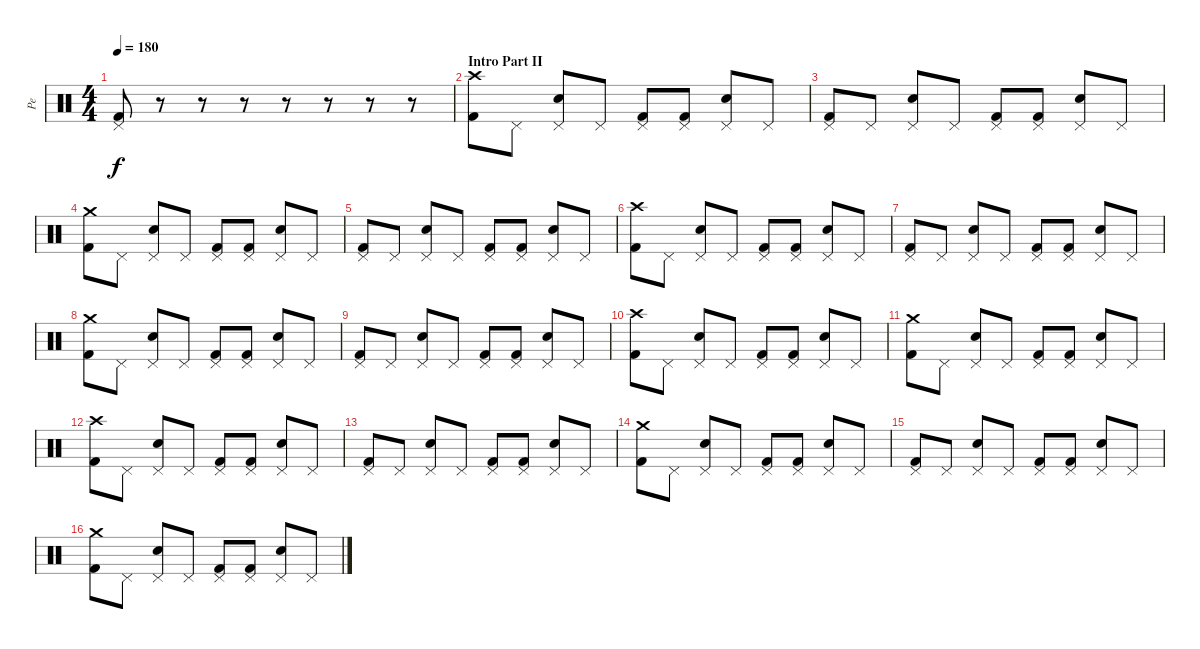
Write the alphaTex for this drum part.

\track ("Pe" "Pe") {instrument percussion}
\staff {score}
\articulation defaults
\ts (4 4)
\tempo 180
\clef neutral
\ks c
("Pedal Hi-Hat (hit)" "Kick (hit) 2").8{dy f} r.8 r.8 r.8 r.8 r.8 r.8 r.8 |
\section ("" "Intro Part II")
("Crash high (hit)" "Kick (hit) 2").8 "Pedal Hi-Hat (hit)".8 ("Pedal Hi-Hat (hit)" "Electric Snare (hit)").8 "Pedal Hi-Hat (hit)".8 ("Pedal Hi-Hat (hit)" "Kick (hit) 2").8 ("Pedal Hi-Hat (hit)" "Kick (hit) 2").8 ("Pedal Hi-Hat (hit)" "Electric Snare (hit)").8 "Pedal Hi-Hat (hit)".8 |
("Pedal Hi-Hat (hit)" "Kick (hit) 2").8 "Pedal Hi-Hat (hit)".8 ("Pedal Hi-Hat (hit)" "Electric Snare (hit)").8 "Pedal Hi-Hat (hit)".8 ("Pedal Hi-Hat (hit)" "Kick (hit) 2").8 ("Pedal Hi-Hat (hit)" "Kick (hit) 2").8 ("Pedal Hi-Hat (hit)" "Electric Snare (hit)").8 "Pedal Hi-Hat (hit)".8 |
("Crash medium (hit)" "Kick (hit) 2").8 "Pedal Hi-Hat (hit)".8 ("Pedal Hi-Hat (hit)" "Electric Snare (hit)").8 "Pedal Hi-Hat (hit)".8 ("Pedal Hi-Hat (hit)" "Kick (hit) 2").8 ("Pedal Hi-Hat (hit)" "Kick (hit) 2").8 ("Pedal Hi-Hat (hit)" "Electric Snare (hit)").8 "Pedal Hi-Hat (hit)".8 |
("Pedal Hi-Hat (hit)" "Kick (hit) 2").8 "Pedal Hi-Hat (hit)".8 ("Pedal Hi-Hat (hit)" "Electric Snare (hit)").8 "Pedal Hi-Hat (hit)".8 ("Pedal Hi-Hat (hit)" "Kick (hit) 2").8 ("Pedal Hi-Hat (hit)" "Kick (hit) 2").8 ("Pedal Hi-Hat (hit)" "Electric Snare (hit)").8 "Pedal Hi-Hat (hit)".8 |
("Crash high (hit)" "Kick (hit) 2").8 "Pedal Hi-Hat (hit)".8 ("Pedal Hi-Hat (hit)" "Electric Snare (hit)").8 "Pedal Hi-Hat (hit)".8 ("Pedal Hi-Hat (hit)" "Kick (hit) 2").8 ("Pedal Hi-Hat (hit)" "Kick (hit) 2").8 ("Pedal Hi-Hat (hit)" "Electric Snare (hit)").8 "Pedal Hi-Hat (hit)".8 |
("Pedal Hi-Hat (hit)" "Kick (hit) 2").8 "Pedal Hi-Hat (hit)".8 ("Pedal Hi-Hat (hit)" "Electric Snare (hit)").8 "Pedal Hi-Hat (hit)".8 ("Pedal Hi-Hat (hit)" "Kick (hit) 2").8 ("Pedal Hi-Hat (hit)" "Kick (hit) 2").8 ("Pedal Hi-Hat (hit)" "Electric Snare (hit)").8 "Pedal Hi-Hat (hit)".8 |
("Crash medium (hit)" "Kick (hit) 2").8 "Pedal Hi-Hat (hit)".8 ("Pedal Hi-Hat (hit)" "Electric Snare (hit)").8 "Pedal Hi-Hat (hit)".8 ("Pedal Hi-Hat (hit)" "Kick (hit) 2").8 ("Pedal Hi-Hat (hit)" "Kick (hit) 2").8 ("Pedal Hi-Hat (hit)" "Electric Snare (hit)").8 "Pedal Hi-Hat (hit)".8 |
("Pedal Hi-Hat (hit)" "Kick (hit) 2").8 "Pedal Hi-Hat (hit)".8 ("Pedal Hi-Hat (hit)" "Electric Snare (hit)").8 "Pedal Hi-Hat (hit)".8 ("Pedal Hi-Hat (hit)" "Kick (hit) 2").8 ("Pedal Hi-Hat (hit)" "Kick (hit) 2").8 ("Pedal Hi-Hat (hit)" "Electric Snare (hit)").8 "Pedal Hi-Hat (hit)".8 |
("Crash high (hit)" "Kick (hit) 2").8 "Pedal Hi-Hat (hit)".8 ("Pedal Hi-Hat (hit)" "Electric Snare (hit)").8 "Pedal Hi-Hat (hit)".8 ("Pedal Hi-Hat (hit)" "Kick (hit) 2").8 ("Pedal Hi-Hat (hit)" "Kick (hit) 2").8 ("Pedal Hi-Hat (hit)" "Electric Snare (hit)").8 "Pedal Hi-Hat (hit)".8 |
("Crash medium (hit)" "Kick (hit) 2").8 "Pedal Hi-Hat (hit)".8 ("Pedal Hi-Hat (hit)" "Electric Snare (hit)").8 "Pedal Hi-Hat (hit)".8 ("Pedal Hi-Hat (hit)" "Kick (hit) 2").8 ("Pedal Hi-Hat (hit)" "Kick (hit) 2").8 ("Pedal Hi-Hat (hit)" "Electric Snare (hit)").8 "Pedal Hi-Hat (hit)".8 |
("Crash high (hit)" "Kick (hit) 2").8 "Pedal Hi-Hat (hit)".8 ("Pedal Hi-Hat (hit)" "Electric Snare (hit)").8 "Pedal Hi-Hat (hit)".8 ("Pedal Hi-Hat (hit)" "Kick (hit) 2").8 ("Pedal Hi-Hat (hit)" "Kick (hit) 2").8 ("Pedal Hi-Hat (hit)" "Electric Snare (hit)").8 "Pedal Hi-Hat (hit)".8 |
("Pedal Hi-Hat (hit)" "Kick (hit) 2").8 "Pedal Hi-Hat (hit)".8 ("Pedal Hi-Hat (hit)" "Electric Snare (hit)").8 "Pedal Hi-Hat (hit)".8 ("Pedal Hi-Hat (hit)" "Kick (hit) 2").8 ("Pedal Hi-Hat (hit)" "Kick (hit) 2").8 ("Pedal Hi-Hat (hit)" "Electric Snare (hit)").8 "Pedal Hi-Hat (hit)".8 |
("Crash medium (hit)" "Kick (hit) 2").8 "Pedal Hi-Hat (hit)".8 ("Pedal Hi-Hat (hit)" "Electric Snare (hit)").8 "Pedal Hi-Hat (hit)".8 ("Pedal Hi-Hat (hit)" "Kick (hit) 2").8 ("Pedal Hi-Hat (hit)" "Kick (hit) 2").8 ("Pedal Hi-Hat (hit)" "Electric Snare (hit)").8 "Pedal Hi-Hat (hit)".8 |
("Pedal Hi-Hat (hit)" "Kick (hit) 2").8 "Pedal Hi-Hat (hit)".8 ("Pedal Hi-Hat (hit)" "Electric Snare (hit)").8 "Pedal Hi-Hat (hit)".8 ("Pedal Hi-Hat (hit)" "Kick (hit) 2").8 ("Pedal Hi-Hat (hit)" "Kick (hit) 2").8 ("Pedal Hi-Hat (hit)" "Electric Snare (hit)").8 "Pedal Hi-Hat (hit)".8 |
("Crash medium (hit)" "Kick (hit) 2").8 "Pedal Hi-Hat (hit)".8 ("Pedal Hi-Hat (hit)" "Electric Snare (hit)").8 "Pedal Hi-Hat (hit)".8 ("Pedal Hi-Hat (hit)" "Kick (hit) 2").8 ("Pedal Hi-Hat (hit)" "Kick (hit) 2").8 ("Pedal Hi-Hat (hit)" "Electric Snare (hit)").8 "Pedal Hi-Hat (hit)".8
